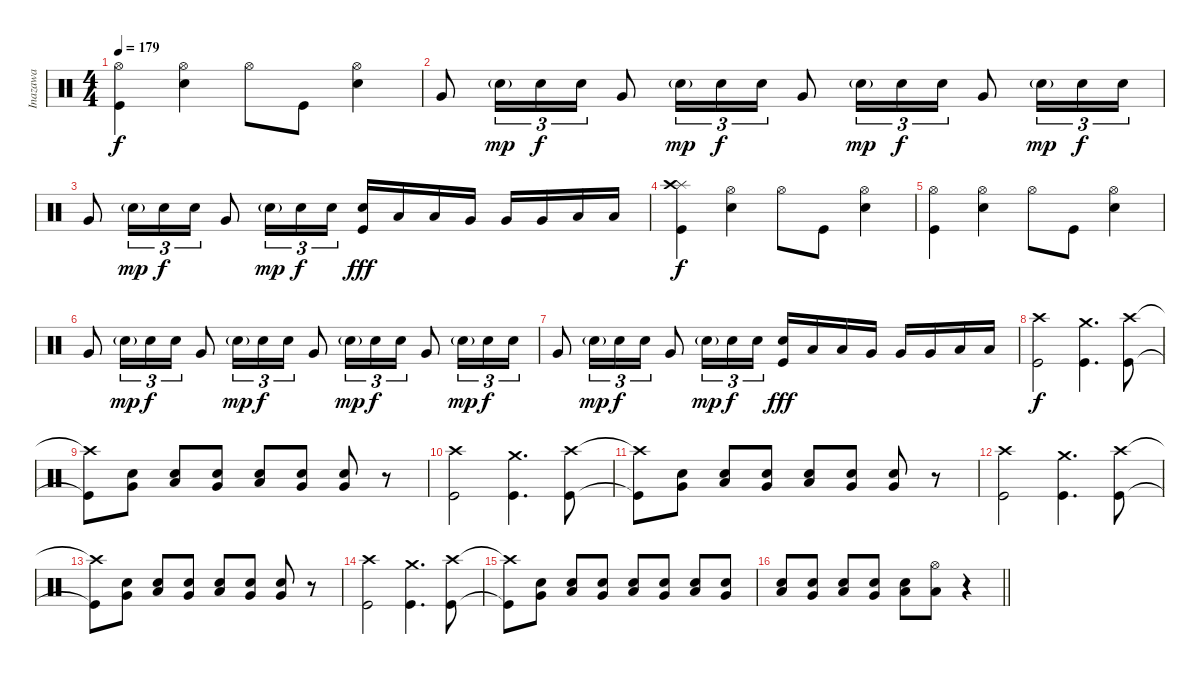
\track ("Inazawa" "Inazawa") {instrument percussion}
\staff {score}
\articulation defaults
\ts (4 4)
\tempo 179
\clef neutral
\ks c
("Hi-Hat (open)" "Kick (hit)").4{dy f} ("Hi-Hat (open)" "Snare (hit) 2").4 "Hi-Hat (open)".8 "Kick (hit)".8 ("Hi-Hat (open)" "Snare (hit) 2").4 |
"Very Low Tom (hit)".8 "Snare (hit) 2"{g}.16{tu (3 2) dy mp} "Snare (hit) 2".16{tu (3 2) dy f} "Snare (hit) 2".16{tu (3 2)} "Very Low Tom (hit)".8 "Snare (hit) 2"{g}.16{tu (3 2) dy mp} "Snare (hit) 2".16{tu (3 2) dy f} "Snare (hit) 2".16{tu (3 2)} "Very Low Tom (hit)".8 "Snare (hit) 2"{g}.16{tu (3 2) dy mp} "Snare (hit) 2".16{tu (3 2) dy f} "Snare (hit) 2".16{tu (3 2)} "Very Low Tom (hit)".8 "Snare (hit) 2"{g}.16{tu (3 2) dy mp} "Snare (hit) 2".16{tu (3 2) dy f} "Snare (hit) 2".16{tu (3 2)} |
"Very Low Tom (hit)".8 "Snare (hit) 2"{g}.16{tu (3 2) dy mp} "Snare (hit) 2".16{tu (3 2) dy f} "Snare (hit) 2".16{tu (3 2)} "Very Low Tom (hit)".8 "Snare (hit) 2"{g}.16{tu (3 2) dy mp} "Snare (hit) 2".16{tu (3 2) dy f} "Snare (hit) 2".16{tu (3 2)} ("Snare (hit) 2" "Kick (hit)").16{dy fff} "Low Tom (hit)".16 "Low Tom (hit)".16 "Very Low Tom (hit)".16 "Very Low Tom (hit)".16 "Very Low Tom (hit)".16 "Low Floor Tom (hit)".16 "Low Floor Tom (hit)".16 |
("Splash (hit)" "Crash high (hit)" "Kick (hit)").4{dy f} ("Hi-Hat (open)" "Snare (hit) 2").4 "Hi-Hat (open)".8 "Kick (hit)".8 ("Hi-Hat (open)" "Snare (hit) 2").4 |
("Hi-Hat (open)" "Kick (hit)").4 ("Hi-Hat (open)" "Snare (hit) 2").4 "Hi-Hat (open)".8 "Kick (hit)".8 ("Hi-Hat (open)" "Snare (hit) 2").4 |
"Very Low Tom (hit)".8 "Snare (hit) 2"{g}.16{tu (3 2) dy mp} "Snare (hit) 2".16{tu (3 2) dy f} "Snare (hit) 2".16{tu (3 2)} "Very Low Tom (hit)".8 "Snare (hit) 2"{g}.16{tu (3 2) dy mp} "Snare (hit) 2".16{tu (3 2) dy f} "Snare (hit) 2".16{tu (3 2)} "Very Low Tom (hit)".8 "Snare (hit) 2"{g}.16{tu (3 2) dy mp} "Snare (hit) 2".16{tu (3 2) dy f} "Snare (hit) 2".16{tu (3 2)} "Very Low Tom (hit)".8 "Snare (hit) 2"{g}.16{tu (3 2) dy mp} "Snare (hit) 2".16{tu (3 2) dy f} "Snare (hit) 2".16{tu (3 2)} |
"Very Low Tom (hit)".8 "Snare (hit) 2"{g}.16{tu (3 2) dy mp} "Snare (hit) 2".16{tu (3 2) dy f} "Snare (hit) 2".16{tu (3 2)} "Very Low Tom (hit)".8 "Snare (hit) 2"{g}.16{tu (3 2) dy mp} "Snare (hit) 2".16{tu (3 2) dy f} "Snare (hit) 2".16{tu (3 2)} ("Snare (hit) 2" "Kick (hit)").16{dy fff} "Low Tom (hit)".16 "Low Tom (hit)".16 "Very Low Tom (hit)".16 "Very Low Tom (hit)".16 "Very Low Tom (hit)".16 "Low Floor Tom (hit)".16 "Low Floor Tom (hit)".16 |
("Crash high (hit)" "Kick (hit)").2{dy f} ("Crash medium (hit)" "Kick (hit)").4{d} ("Crash high (hit)" "Kick (hit)").8 |
("Crash high (hit)"{t} "Kick (hit)"{t}).8 ("Snare (hit) 2" "Very Low Tom (hit)").8 ("Snare (hit) 2" "Low Tom (hit)").8 ("Snare (hit) 2" "Very Low Tom (hit)").8 ("Snare (hit) 2" "Low Tom (hit)").8 ("Snare (hit) 2" "Very Low Tom (hit)").8 ("Snare (hit) 2" "Very Low Tom (hit)").8 r.8 |
("Crash high (hit)" "Kick (hit)").2 ("Crash medium (hit)" "Kick (hit)").4{d} ("Crash high (hit)" "Kick (hit)").8 |
("Crash high (hit)"{t} "Kick (hit)"{t}).8 ("Snare (hit) 2" "Very Low Tom (hit)").8 ("Snare (hit) 2" "Low Tom (hit)").8 ("Snare (hit) 2" "Very Low Tom (hit)").8 ("Snare (hit) 2" "Low Tom (hit)").8 ("Snare (hit) 2" "Very Low Tom (hit)").8 ("Snare (hit) 2" "Very Low Tom (hit)").8 r.8 |
("Crash high (hit)" "Kick (hit)").2 ("Crash medium (hit)" "Kick (hit)").4{d} ("Crash high (hit)" "Kick (hit)").8 |
("Crash high (hit)"{t} "Kick (hit)"{t}).8 ("Snare (hit) 2" "Very Low Tom (hit)").8 ("Snare (hit) 2" "Low Tom (hit)").8 ("Snare (hit) 2" "Very Low Tom (hit)").8 ("Snare (hit) 2" "Low Tom (hit)").8 ("Snare (hit) 2" "Very Low Tom (hit)").8 ("Snare (hit) 2" "Very Low Tom (hit)").8 r.8 |
("Crash high (hit)" "Kick (hit)").2 ("Crash medium (hit)" "Kick (hit)").4{d} ("Crash high (hit)" "Kick (hit)").8 |
("Crash high (hit)"{t} "Kick (hit)"{t}).8 ("Snare (hit) 2" "Very Low Tom (hit)").8{volume 14} ("Snare (hit) 2" "Low Tom (hit)").8 ("Snare (hit) 2" "Very Low Tom (hit)").8 ("Snare (hit) 2" "Low Tom (hit)").8 ("Snare (hit) 2" "Very Low Tom (hit)").8 ("Snare (hit) 2" "Low Tom (hit)").8 ("Snare (hit) 2" "Very Low Tom (hit)").8 |
\barLineRight lightlight
("Snare (hit) 2" "Low Tom (hit)").8 ("Snare (hit) 2" "Very Low Tom (hit)").8 ("Snare (hit) 2" "Low Tom (hit)").8 ("Snare (hit) 2" "Very Low Tom (hit)").8 ("Snare (hit) 2" "Low Tom (hit)").8 ("Hi-Hat (open)" "Low Tom (hit)").8 r.4
